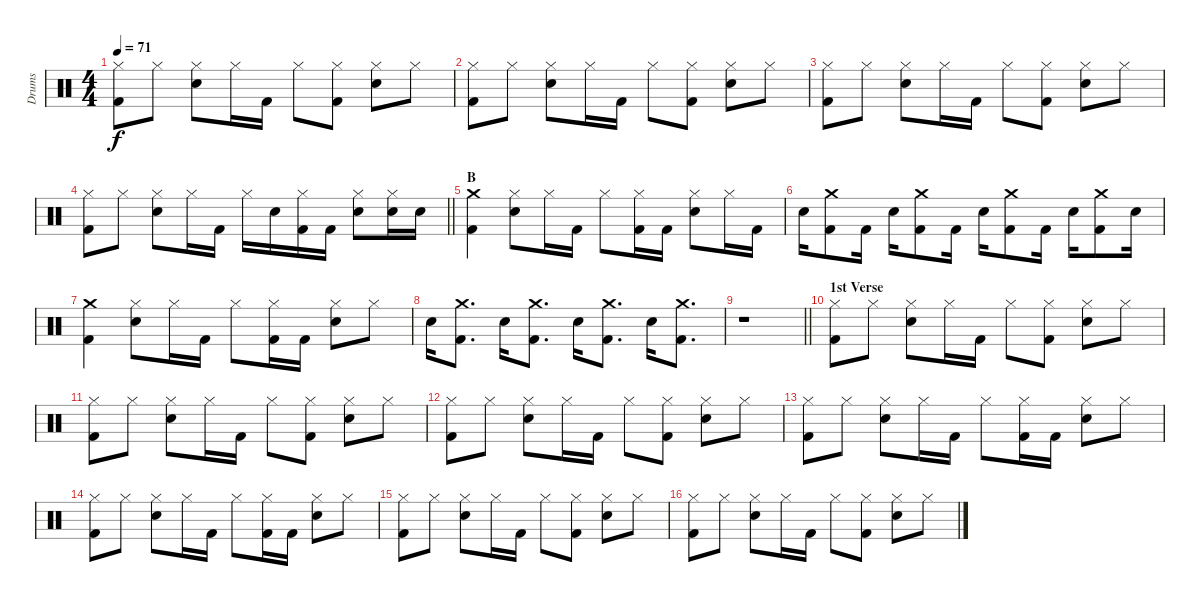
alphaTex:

\track ("Drums" "Drums") {instrument percussion}
\staff {score}
\articulation defaults
\ts (4 4)
\tempo 71
\clef neutral
\ks c
("Hi-Hat (closed)" "Kick (hit) 2").8{dy f} "Hi-Hat (closed)".8 ("Hi-Hat (closed)" "Snare (hit) 2").8 "Hi-Hat (closed)".16 "Kick (hit) 2".16 "Hi-Hat (closed)".8 ("Kick (hit) 2" "Hi-Hat (closed)").8 ("Hi-Hat (closed)" "Snare (hit) 2").8 "Hi-Hat (closed)".8 |
("Hi-Hat (closed)" "Kick (hit) 2").8 "Hi-Hat (closed)".8 ("Hi-Hat (closed)" "Snare (hit) 2").8 "Hi-Hat (closed)".16 "Kick (hit) 2".16 "Hi-Hat (closed)".8 ("Kick (hit) 2" "Hi-Hat (closed)").8 ("Hi-Hat (closed)" "Snare (hit) 2").8 "Hi-Hat (closed)".8 |
("Kick (hit) 2" "Hi-Hat (closed)").8 "Hi-Hat (closed)".8 ("Hi-Hat (closed)" "Snare (hit) 2").8 "Hi-Hat (closed)".16 "Kick (hit) 2".16 "Hi-Hat (closed)".8 ("Kick (hit) 2" "Hi-Hat (closed)").8 ("Snare (hit) 2" "Hi-Hat (closed)").8 "Hi-Hat (closed)".8 |
\barLineRight lightlight
("Hi-Hat (closed)" "Kick (hit) 2").8 "Hi-Hat (closed)".8 ("Hi-Hat (closed)" "Snare (hit) 2").8 "Hi-Hat (closed)".16 "Kick (hit) 2".16 "Hi-Hat (closed)".16 "Snare (hit) 2".16 ("Hi-Hat (closed)" "Kick (hit) 2").16 "Kick (hit) 2".16 ("Snare (hit) 2" "Hi-Hat (closed)").8 ("Hi-Hat (closed)" "Snare (hit) 2").16 "Snare (hit) 2".16 |
\section ("" "B")
("Crash medium (hit)" "Kick (hit) 2").4 ("Snare (hit) 2" "Hi-Hat (closed)").8 "Hi-Hat (closed)".16 "Kick (hit) 2".16 "Hi-Hat (closed)".8 ("Hi-Hat (closed)" "Kick (hit) 2").16 "Kick (hit) 2".16 ("Hi-Hat (closed)" "Snare (hit) 2").8 "Hi-Hat (closed)".16 "Kick (hit) 2".16 |
"Snare (hit) 2".16 ("Crash medium (hit)" "Kick (hit) 2").8 "Kick (hit) 2".16 "Snare (hit) 2".16 ("Crash medium (hit)" "Kick (hit) 2").8 "Kick (hit) 2".16 "Snare (hit) 2".16 ("Crash medium (hit)" "Kick (hit) 2").8 "Kick (hit) 2".16 "Snare (hit) 2".16 ("Crash medium (hit)" "Kick (hit) 2").8 "Snare (hit) 2".16 |
("Crash medium (hit)" "Kick (hit) 2").4 ("Hi-Hat (closed)" "Snare (hit) 2").8 "Hi-Hat (closed)".16 "Kick (hit) 2".16 "Hi-Hat (closed)".8 ("Kick (hit) 2" "Hi-Hat (closed)").16 "Kick (hit) 2".16 ("Hi-Hat (closed)" "Snare (hit) 2").8 "Hi-Hat (closed)".8 |
"Snare (hit) 2".16 ("Crash medium (hit)" "Kick (hit) 2").8{d} "Snare (hit) 2".16 ("Crash medium (hit)" "Kick (hit) 2").8{d} "Snare (hit) 2".16 ("Crash medium (hit)" "Kick (hit) 2").8{d} "Snare (hit) 2".16 ("Crash medium (hit)" "Kick (hit) 2").8{d} |
\barLineRight lightlight
r.1 |
\section ("" "1st Verse")
("Hi-Hat (closed)" "Kick (hit) 2").8 "Hi-Hat (closed)".8 ("Hi-Hat (closed)" "Snare (hit) 2").8 "Hi-Hat (closed)".16 "Kick (hit) 2".16 "Hi-Hat (closed)".8 ("Kick (hit) 2" "Hi-Hat (closed)").8 ("Hi-Hat (closed)" "Snare (hit) 2").8 "Hi-Hat (closed)".8 |
("Hi-Hat (closed)" "Kick (hit) 2").8 "Hi-Hat (closed)".8 ("Hi-Hat (closed)" "Snare (hit) 2").8 "Hi-Hat (closed)".16 "Kick (hit) 2".16 "Hi-Hat (closed)".8 ("Kick (hit) 2" "Hi-Hat (closed)").8 ("Hi-Hat (closed)" "Snare (hit) 2").8 "Hi-Hat (closed)".8 |
("Hi-Hat (closed)" "Kick (hit) 2").8 "Hi-Hat (closed)".8 ("Hi-Hat (closed)" "Snare (hit) 2").8 "Hi-Hat (closed)".16 "Kick (hit) 2".16 "Hi-Hat (closed)".8 ("Kick (hit) 2" "Hi-Hat (closed)").8 ("Hi-Hat (closed)" "Snare (hit) 2").8 "Hi-Hat (closed)".8 |
("Hi-Hat (closed)" "Kick (hit) 2").8 "Hi-Hat (closed)".8 ("Hi-Hat (closed)" "Snare (hit) 2").8 "Hi-Hat (closed)".16 "Kick (hit) 2".16 "Hi-Hat (closed)".8 ("Kick (hit) 2" "Hi-Hat (closed)").16 "Kick (hit) 2".16 ("Hi-Hat (closed)" "Snare (hit) 2").8 "Hi-Hat (closed)".8 |
("Hi-Hat (closed)" "Kick (hit) 2").8 "Hi-Hat (closed)".8 ("Hi-Hat (closed)" "Snare (hit) 2").8 "Hi-Hat (closed)".16 "Kick (hit) 2".16 "Hi-Hat (closed)".8 ("Kick (hit) 2" "Hi-Hat (closed)").16 "Kick (hit) 2".16 ("Hi-Hat (closed)" "Snare (hit) 2").8 "Hi-Hat (closed)".8 |
("Hi-Hat (closed)" "Kick (hit) 2").8 "Hi-Hat (closed)".8 ("Hi-Hat (closed)" "Snare (hit) 2").8 "Hi-Hat (closed)".16 "Kick (hit) 2".16 "Hi-Hat (closed)".8 ("Kick (hit) 2" "Hi-Hat (closed)").8 ("Hi-Hat (closed)" "Snare (hit) 2").8 "Hi-Hat (closed)".8 |
("Hi-Hat (closed)" "Kick (hit) 2").8 "Hi-Hat (closed)".8 ("Hi-Hat (closed)" "Snare (hit) 2").8 "Hi-Hat (closed)".16 "Kick (hit) 2".16 "Hi-Hat (closed)".8 ("Kick (hit) 2" "Hi-Hat (closed)").8 ("Hi-Hat (closed)" "Snare (hit) 2").8 "Hi-Hat (closed)".8
